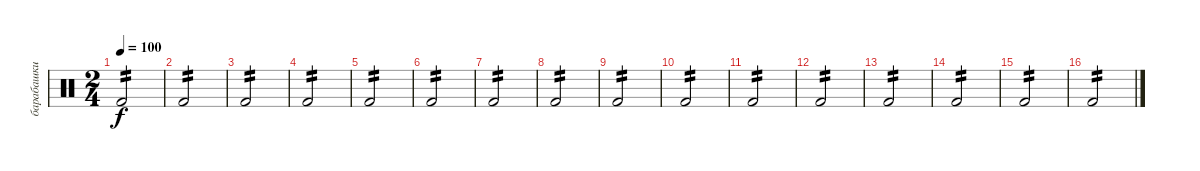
\track ("барабашки low" "барабашки ") {instrument percussion}
\staff {score}
\articulation defaults
\ts (2 4)
\tempo 100
\clef neutral
\ks c "Kick (hit) 2".2{tp 2 dy f}
|
"Kick (hit) 2".2{tp 2} |
"Kick (hit) 2".2{tp 2} |
"Kick (hit) 2".2{tp 2} |
"Kick (hit) 2".2{tp 2} |
"Kick (hit) 2".2{tp 2} |
"Kick (hit) 2".2{tp 2} |
"Kick (hit) 2".2{tp 2} |
"Kick (hit) 2".2{tp 2} |
"Kick (hit) 2".2{tp 2} |
"Kick (hit) 2".2{tp 2} |
"Kick (hit) 2".2{tp 2} |
"Kick (hit) 2".2{tp 2} |
"Kick (hit) 2".2{tp 2} |
"Kick (hit) 2".2{tp 2} |
"Kick (hit) 2".2{tp 2}
